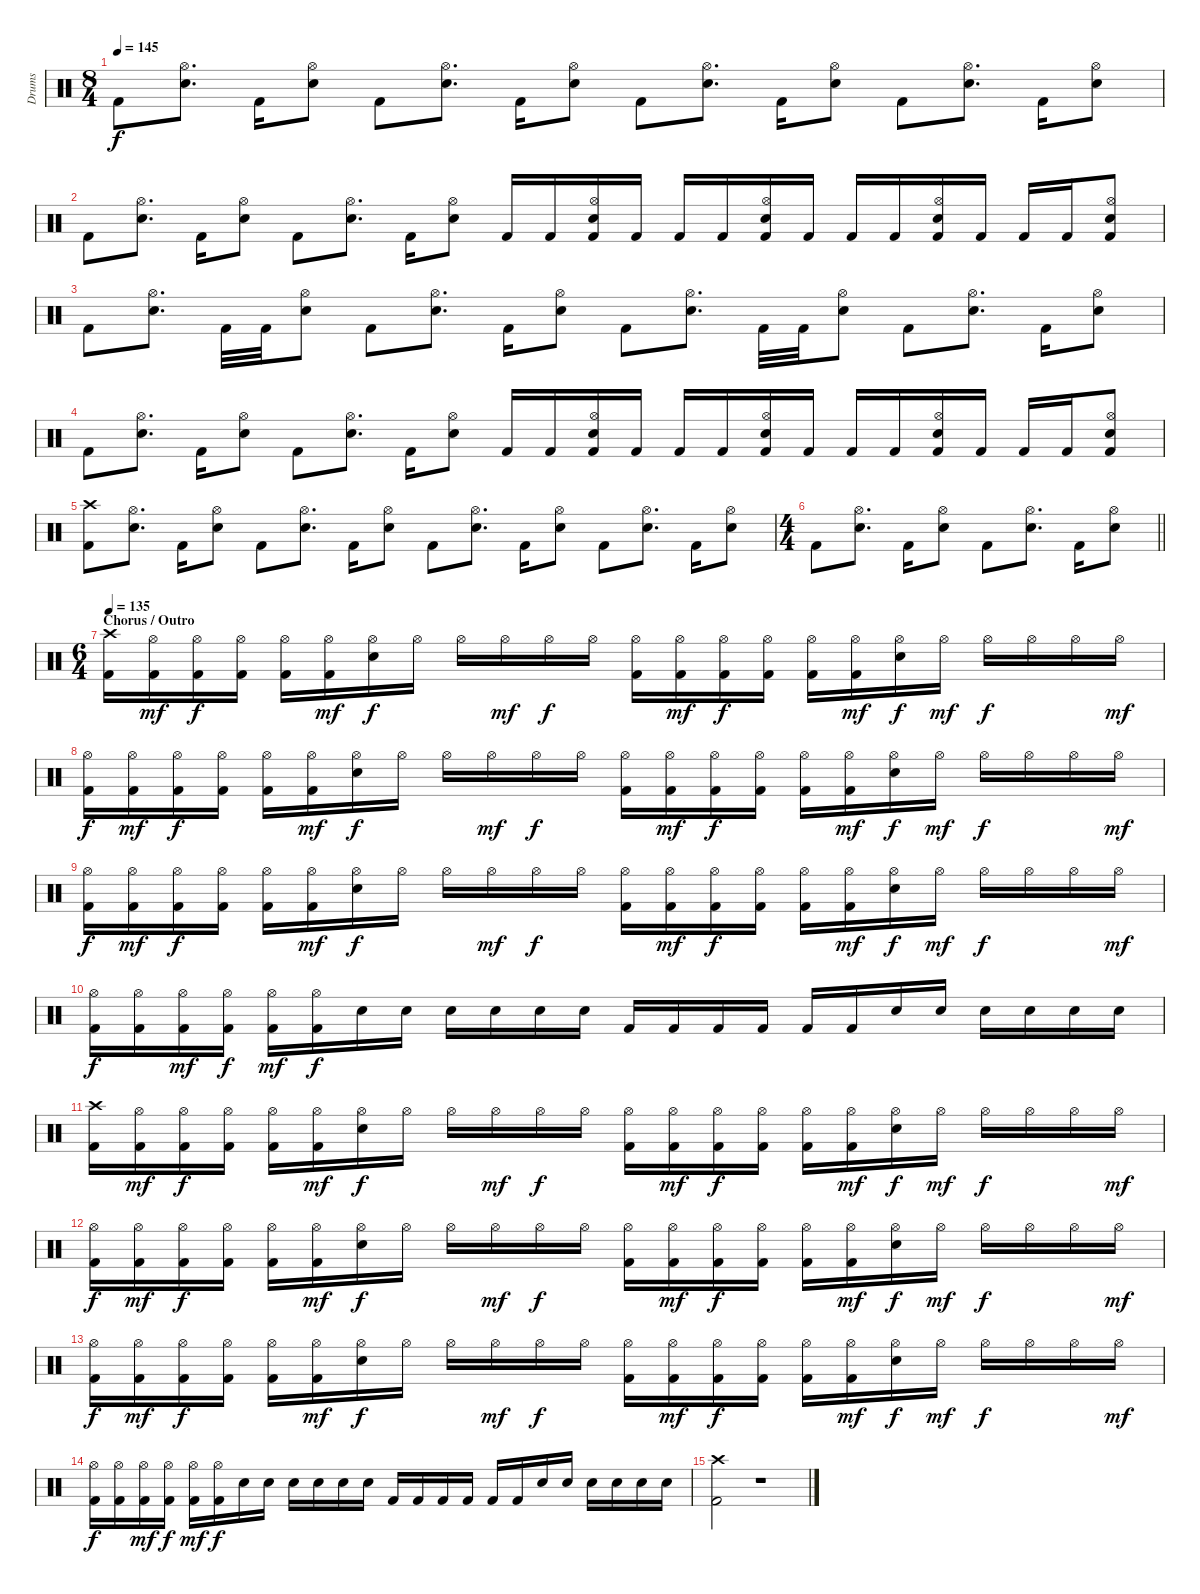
\track ("Drums" "Drums") {instrument percussion}
\staff {score}
\articulation defaults
\ts (8 4)
\tempo 145
\clef neutral
\ks c "Kick (hit) 2".8{dy f}
("Hi-Hat (open)" "Snare (hit) 2").8{d} "Kick (hit) 2".16 ("Hi-Hat (open)" "Snare (hit) 2").8 "Kick (hit) 2".8 ("Hi-Hat (open)" "Snare (hit) 2").8{d} "Kick (hit) 2".16 ("Hi-Hat (open)" "Snare (hit) 2").8 "Kick (hit) 2".8 ("Hi-Hat (open)" "Snare (hit) 2").8{d} "Kick (hit) 2".16 ("Hi-Hat (open)" "Snare (hit) 2").8 "Kick (hit) 2".8 ("Hi-Hat (open)" "Snare (hit) 2").8{d} "Kick (hit) 2".16 ("Hi-Hat (open)" "Snare (hit) 2").8 |
"Kick (hit) 2".8 ("Hi-Hat (open)" "Snare (hit) 2").8{d} "Kick (hit) 2".16 ("Hi-Hat (open)" "Snare (hit) 2").8 "Kick (hit) 2".8 ("Hi-Hat (open)" "Snare (hit) 2").8{d} "Kick (hit) 2".16 ("Hi-Hat (open)" "Snare (hit) 2").8 "Kick (hit) 2".16 "Kick (hit) 2".16 ("Hi-Hat (open)" "Snare (hit) 2" "Kick (hit) 2").16 "Kick (hit) 2".16 "Kick (hit) 2".16 "Kick (hit) 2".16 ("Hi-Hat (open)" "Snare (hit) 2" "Kick (hit) 2").16 "Kick (hit) 2".16 "Kick (hit) 2".16 "Kick (hit) 2".16 ("Hi-Hat (open)" "Snare (hit) 2" "Kick (hit) 2").16 "Kick (hit) 2".16 "Kick (hit) 2".16 "Kick (hit) 2".16 ("Hi-Hat (open)" "Snare (hit) 2" "Kick (hit) 2").8 |
"Kick (hit) 2".8 ("Hi-Hat (open)" "Snare (hit) 2").8{d} "Kick (hit) 2".32 "Kick (hit) 2".32 ("Hi-Hat (open)" "Snare (hit) 2").8 "Kick (hit) 2".8 ("Hi-Hat (open)" "Snare (hit) 2").8{d} "Kick (hit) 2".16 ("Hi-Hat (open)" "Snare (hit) 2").8 "Kick (hit) 2".8 ("Hi-Hat (open)" "Snare (hit) 2").8{d} "Kick (hit) 2".32 "Kick (hit) 2".32 ("Hi-Hat (open)" "Snare (hit) 2").8 "Kick (hit) 2".8 ("Hi-Hat (open)" "Snare (hit) 2").8{d} "Kick (hit) 2".16 ("Hi-Hat (open)" "Snare (hit) 2").8 |
"Kick (hit) 2".8 ("Hi-Hat (open)" "Snare (hit) 2").8{d} "Kick (hit) 2".16 ("Hi-Hat (open)" "Snare (hit) 2").8 "Kick (hit) 2".8 ("Hi-Hat (open)" "Snare (hit) 2").8{d} "Kick (hit) 2".16 ("Hi-Hat (open)" "Snare (hit) 2").8 "Kick (hit) 2".16 "Kick (hit) 2".16 ("Hi-Hat (open)" "Snare (hit) 2" "Kick (hit) 2").16 "Kick (hit) 2".16 "Kick (hit) 2".16 "Kick (hit) 2".16 ("Hi-Hat (open)" "Snare (hit) 2" "Kick (hit) 2").16 "Kick (hit) 2".16 "Kick (hit) 2".16 "Kick (hit) 2".16 ("Hi-Hat (open)" "Snare (hit) 2" "Kick (hit) 2").16 "Kick (hit) 2".16 "Kick (hit) 2".16 "Kick (hit) 2".16 ("Hi-Hat (open)" "Snare (hit) 2" "Kick (hit) 2").8 |
("Crash high (hit)" "Kick (hit) 2").8 ("Hi-Hat (open)" "Snare (hit) 2").8{d} "Kick (hit) 2".16 ("Hi-Hat (open)" "Snare (hit) 2").8 "Kick (hit) 2".8 ("Hi-Hat (open)" "Snare (hit) 2").8{d} "Kick (hit) 2".16 ("Hi-Hat (open)" "Snare (hit) 2").8 "Kick (hit) 2".8 ("Hi-Hat (open)" "Snare (hit) 2").8{d} "Kick (hit) 2".16 ("Hi-Hat (open)" "Snare (hit) 2").8 "Kick (hit) 2".8 ("Hi-Hat (open)" "Snare (hit) 2").8{d} "Kick (hit) 2".16 ("Hi-Hat (open)" "Snare (hit) 2").8 |
\ts (4 4)
\barLineRight lightlight "Kick (hit) 2".8
("Hi-Hat (open)" "Snare (hit) 2").8{d} "Kick (hit) 2".16 ("Hi-Hat (open)" "Snare (hit) 2").8 "Kick (hit) 2".8 ("Hi-Hat (open)" "Snare (hit) 2").8{d} "Kick (hit) 2".16 ("Hi-Hat (open)" "Snare (hit) 2").8 |
\ts (6 4)
\section ("" "Chorus / Outro")
\tempo 135
("Crash high (hit)" "Kick (hit) 2").16 ("Hi-Hat (open)" "Kick (hit) 2").16{dy mf} ("Hi-Hat (open)" "Kick (hit) 2").16{dy f} ("Hi-Hat (open)" "Kick (hit) 2").16 ("Hi-Hat (open)" "Kick (hit) 2").16 ("Hi-Hat (open)" "Kick (hit) 2").16{dy mf} ("Hi-Hat (open)" "Snare (hit) 2").16{dy f} "Hi-Hat (open)".16 "Hi-Hat (open)".16 "Hi-Hat (open)".16{dy mf} "Hi-Hat (open)".16{dy f} "Hi-Hat (open)".16 ("Hi-Hat (open)" "Kick (hit) 2").16 ("Hi-Hat (open)" "Kick (hit) 2").16{dy mf} ("Hi-Hat (open)" "Kick (hit) 2").16{dy f} ("Hi-Hat (open)" "Kick (hit) 2").16 ("Hi-Hat (open)" "Kick (hit) 2").16 ("Hi-Hat (open)" "Kick (hit) 2").16{dy mf} ("Hi-Hat (open)" "Snare (hit) 2").16{dy f} "Hi-Hat (open)".16{dy mf} "Hi-Hat (open)".16{dy f} "Hi-Hat (open)".16 "Hi-Hat (open)".16 "Hi-Hat (open)".16{dy mf} |
("Hi-Hat (open)" "Kick (hit) 2").16{dy f} ("Hi-Hat (open)" "Kick (hit) 2").16{dy mf} ("Hi-Hat (open)" "Kick (hit) 2").16{dy f} ("Hi-Hat (open)" "Kick (hit) 2").16 ("Hi-Hat (open)" "Kick (hit) 2").16 ("Hi-Hat (open)" "Kick (hit) 2").16{dy mf} ("Hi-Hat (open)" "Snare (hit) 2").16{dy f} "Hi-Hat (open)".16 "Hi-Hat (open)".16 "Hi-Hat (open)".16{dy mf} "Hi-Hat (open)".16{dy f} "Hi-Hat (open)".16 ("Hi-Hat (open)" "Kick (hit) 2").16 ("Hi-Hat (open)" "Kick (hit) 2").16{dy mf} ("Hi-Hat (open)" "Kick (hit) 2").16{dy f} ("Hi-Hat (open)" "Kick (hit) 2").16 ("Hi-Hat (open)" "Kick (hit) 2").16 ("Hi-Hat (open)" "Kick (hit) 2").16{dy mf} ("Hi-Hat (open)" "Snare (hit) 2").16{dy f} "Hi-Hat (open)".16{dy mf} "Hi-Hat (open)".16{dy f} "Hi-Hat (open)".16 "Hi-Hat (open)".16 "Hi-Hat (open)".16{dy mf} |
("Hi-Hat (open)" "Kick (hit) 2").16{dy f} ("Hi-Hat (open)" "Kick (hit) 2").16{dy mf} ("Hi-Hat (open)" "Kick (hit) 2").16{dy f} ("Hi-Hat (open)" "Kick (hit) 2").16 ("Hi-Hat (open)" "Kick (hit) 2").16 ("Hi-Hat (open)" "Kick (hit) 2").16{dy mf} ("Hi-Hat (open)" "Snare (hit) 2").16{dy f} "Hi-Hat (open)".16 "Hi-Hat (open)".16 "Hi-Hat (open)".16{dy mf} "Hi-Hat (open)".16{dy f} "Hi-Hat (open)".16 ("Hi-Hat (open)" "Kick (hit) 2").16 ("Hi-Hat (open)" "Kick (hit) 2").16{dy mf} ("Hi-Hat (open)" "Kick (hit) 2").16{dy f} ("Hi-Hat (open)" "Kick (hit) 2").16 ("Hi-Hat (open)" "Kick (hit) 2").16 ("Hi-Hat (open)" "Kick (hit) 2").16{dy mf} ("Hi-Hat (open)" "Snare (hit) 2").16{dy f} "Hi-Hat (open)".16{dy mf} "Hi-Hat (open)".16{dy f} "Hi-Hat (open)".16 "Hi-Hat (open)".16 "Hi-Hat (open)".16{dy mf} |
("Hi-Hat (open)" "Kick (hit) 2").16{dy f} ("Hi-Hat (open)" "Kick (hit) 2").16 ("Hi-Hat (open)" "Kick (hit) 2").16{dy mf} ("Hi-Hat (open)" "Kick (hit) 2").16{dy f} ("Hi-Hat (open)" "Kick (hit) 2").16{dy mf} ("Hi-Hat (open)" "Kick (hit) 2").16{dy f} "Snare (hit) 2".16 "Snare (hit) 2".16 "Snare (hit) 2".16 "Snare (hit) 2".16 "Snare (hit) 2".16 "Snare (hit) 2".16 "Kick (hit) 2".16 "Kick (hit) 2".16 "Kick (hit) 2".16 "Kick (hit) 2".16 "Kick (hit) 2".16 "Kick (hit) 2".16 "Snare (hit) 2".16 "Snare (hit) 2".16 "Snare (hit) 2".16 "Snare (hit) 2".16 "Snare (hit) 2".16 "Snare (hit) 2".16 |
("Crash high (hit)" "Kick (hit) 2").16 ("Hi-Hat (open)" "Kick (hit) 2").16{dy mf} ("Hi-Hat (open)" "Kick (hit) 2").16{dy f} ("Hi-Hat (open)" "Kick (hit) 2").16 ("Hi-Hat (open)" "Kick (hit) 2").16 ("Hi-Hat (open)" "Kick (hit) 2").16{dy mf} ("Hi-Hat (open)" "Snare (hit) 2").16{dy f} "Hi-Hat (open)".16 "Hi-Hat (open)".16 "Hi-Hat (open)".16{dy mf} "Hi-Hat (open)".16{dy f} "Hi-Hat (open)".16 ("Hi-Hat (open)" "Kick (hit) 2").16 ("Hi-Hat (open)" "Kick (hit) 2").16{dy mf} ("Hi-Hat (open)" "Kick (hit) 2").16{dy f} ("Hi-Hat (open)" "Kick (hit) 2").16 ("Hi-Hat (open)" "Kick (hit) 2").16 ("Hi-Hat (open)" "Kick (hit) 2").16{dy mf} ("Hi-Hat (open)" "Snare (hit) 2").16{dy f} "Hi-Hat (open)".16{dy mf} "Hi-Hat (open)".16{dy f} "Hi-Hat (open)".16 "Hi-Hat (open)".16 "Hi-Hat (open)".16{dy mf} |
("Hi-Hat (open)" "Kick (hit) 2").16{dy f} ("Hi-Hat (open)" "Kick (hit) 2").16{dy mf} ("Hi-Hat (open)" "Kick (hit) 2").16{dy f} ("Hi-Hat (open)" "Kick (hit) 2").16 ("Hi-Hat (open)" "Kick (hit) 2").16 ("Hi-Hat (open)" "Kick (hit) 2").16{dy mf} ("Hi-Hat (open)" "Snare (hit) 2").16{dy f} "Hi-Hat (open)".16 "Hi-Hat (open)".16 "Hi-Hat (open)".16{dy mf} "Hi-Hat (open)".16{dy f} "Hi-Hat (open)".16 ("Hi-Hat (open)" "Kick (hit) 2").16 ("Hi-Hat (open)" "Kick (hit) 2").16{dy mf} ("Hi-Hat (open)" "Kick (hit) 2").16{dy f} ("Hi-Hat (open)" "Kick (hit) 2").16 ("Hi-Hat (open)" "Kick (hit) 2").16 ("Hi-Hat (open)" "Kick (hit) 2").16{dy mf} ("Hi-Hat (open)" "Snare (hit) 2").16{dy f} "Hi-Hat (open)".16{dy mf} "Hi-Hat (open)".16{dy f} "Hi-Hat (open)".16 "Hi-Hat (open)".16 "Hi-Hat (open)".16{dy mf} |
("Hi-Hat (open)" "Kick (hit) 2").16{dy f} ("Hi-Hat (open)" "Kick (hit) 2").16{dy mf} ("Hi-Hat (open)" "Kick (hit) 2").16{dy f} ("Hi-Hat (open)" "Kick (hit) 2").16 ("Hi-Hat (open)" "Kick (hit) 2").16 ("Hi-Hat (open)" "Kick (hit) 2").16{dy mf} ("Hi-Hat (open)" "Snare (hit) 2").16{dy f} "Hi-Hat (open)".16 "Hi-Hat (open)".16 "Hi-Hat (open)".16{dy mf} "Hi-Hat (open)".16{dy f} "Hi-Hat (open)".16 ("Hi-Hat (open)" "Kick (hit) 2").16 ("Hi-Hat (open)" "Kick (hit) 2").16{dy mf} ("Hi-Hat (open)" "Kick (hit) 2").16{dy f} ("Hi-Hat (open)" "Kick (hit) 2").16 ("Hi-Hat (open)" "Kick (hit) 2").16 ("Hi-Hat (open)" "Kick (hit) 2").16{dy mf} ("Hi-Hat (open)" "Snare (hit) 2").16{dy f} "Hi-Hat (open)".16{dy mf} "Hi-Hat (open)".16{dy f} "Hi-Hat (open)".16 "Hi-Hat (open)".16 "Hi-Hat (open)".16{dy mf} |
("Hi-Hat (open)" "Kick (hit) 2").16{dy f} ("Hi-Hat (open)" "Kick (hit) 2").16 ("Hi-Hat (open)" "Kick (hit) 2").16{dy mf} ("Hi-Hat (open)" "Kick (hit) 2").16{dy f} ("Hi-Hat (open)" "Kick (hit) 2").16{dy mf} ("Hi-Hat (open)" "Kick (hit) 2").16{dy f} "Snare (hit) 2".16 "Snare (hit) 2".16 "Snare (hit) 2".16 "Snare (hit) 2".16 "Snare (hit) 2".16 "Snare (hit) 2".16 "Kick (hit) 2".16 "Kick (hit) 2".16 "Kick (hit) 2".16 "Kick (hit) 2".16 "Kick (hit) 2".16 "Kick (hit) 2".16 "Snare (hit) 2".16 "Snare (hit) 2".16 "Snare (hit) 2".16 "Snare (hit) 2".16 "Snare (hit) 2".16 "Snare (hit) 2".16 |
("Crash high (hit)" "Kick (hit) 2").2 r.1
